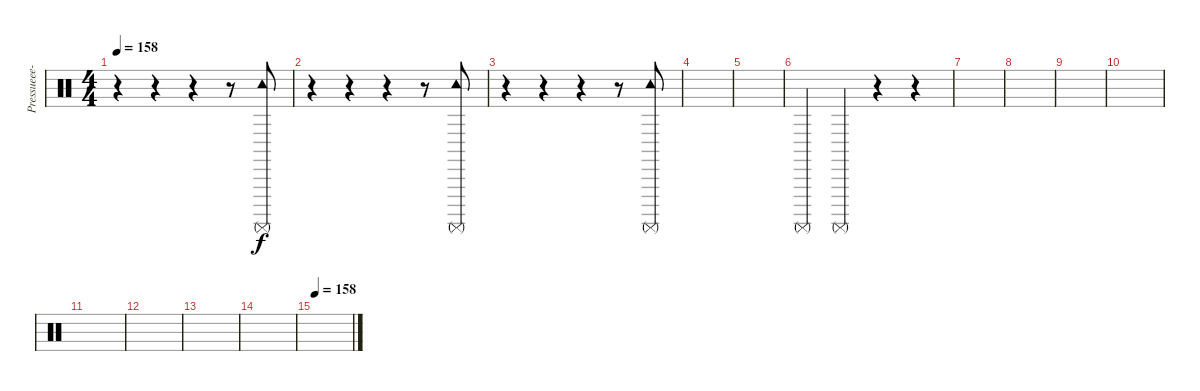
\track ("" "Pressueee-") {instrument percussion}
\staff {score}
\articulation defaults
\ts (4 4)
\tempo 158
\clef neutral
\ks c
r.4{dy f} r.4 r.4 r.8 ("Tambourine (hit)" "Surdo (mute)").8 |
r.4 r.4 r.4 r.8 ("Tambourine (hit)" "Surdo (mute)").8 |
r.4 r.4 r.4 r.8 ("Tambourine (hit)" "Surdo (mute)").8 |
|
|
"Surdo (mute)".4 "Surdo (mute)".4 r.4 r.4 |
|
|
|
|
|
|
|
\section ("" "")
|
\tempo 158
